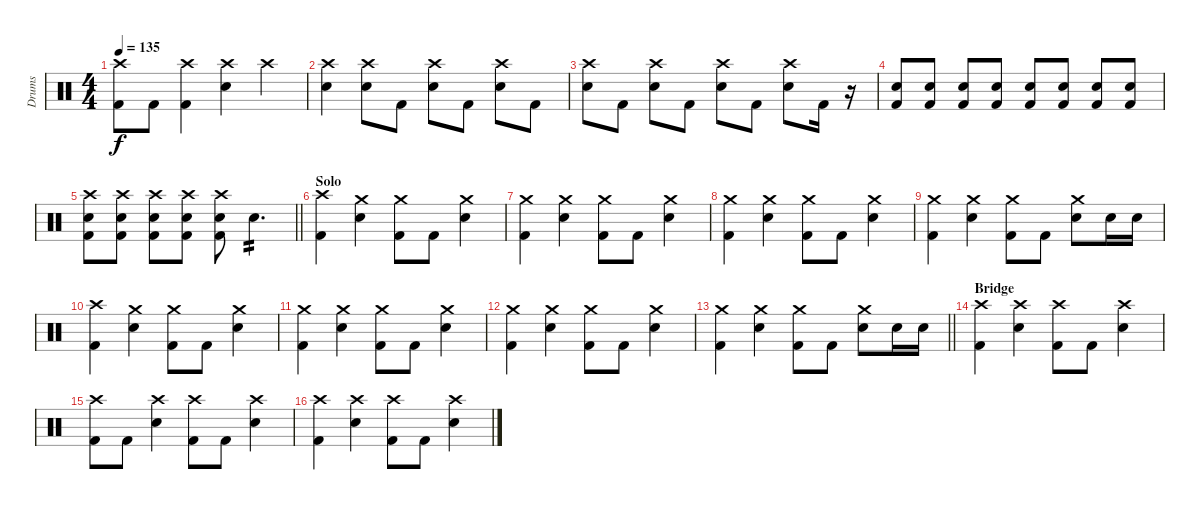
\track ("Drums" "Drums") {instrument percussion}
\staff {score}
\articulation defaults
\ts (4 4)
\tempo 135
\clef neutral
\ks c
("Crash high (hit)" "Kick (hit) 2").8{dy f} "Kick (hit) 2".8 ("Crash high (hit)" "Kick (hit) 2").4 ("Crash high (hit)" "Electric Snare (hit)").4 "Crash high (hit)".4 |
("Crash high (hit)" "Electric Snare (hit)").4 ("Crash high (hit)" "Electric Snare (hit)").8 "Kick (hit) 2".8 ("Crash high (hit)" "Electric Snare (hit)").8 "Kick (hit) 2".8 ("Crash high (hit)" "Electric Snare (hit)").8 "Kick (hit) 2".8 |
("Crash high (hit)" "Electric Snare (hit)").8 "Kick (hit) 2".8 ("Crash high (hit)" "Electric Snare (hit)").8 "Kick (hit) 2".8 ("Crash high (hit)" "Electric Snare (hit)").8 "Kick (hit) 2".8 ("Crash high (hit)" "Electric Snare (hit)").8 "Kick (hit) 2".16 r.16{volume 9} |
("Electric Snare (hit)" "Kick (hit) 2").8{volume 16} ("Electric Snare (hit)" "Kick (hit) 2").8 ("Electric Snare (hit)" "Kick (hit) 2").8 ("Electric Snare (hit)" "Kick (hit) 2").8 ("Electric Snare (hit)" "Kick (hit) 2").8 ("Electric Snare (hit)" "Kick (hit) 2").8 ("Electric Snare (hit)" "Kick (hit) 2").8 ("Electric Snare (hit)" "Kick (hit) 2").8 |
\barLineRight lightlight
("Crash high (hit)" "Electric Snare (hit)" "Kick (hit) 2").8 ("Crash high (hit)" "Electric Snare (hit)" "Kick (hit) 2").8 ("Crash high (hit)" "Electric Snare (hit)" "Kick (hit) 2").8 ("Crash high (hit)" "Electric Snare (hit)" "Kick (hit) 2").8 ("Crash high (hit)" "Electric Snare (hit)" "Kick (hit) 2").8 "Electric Snare (hit)".4{d tp 2} |
\section ("" "Solo")
("Crash high (hit)" "Kick (hit) 2").4 ("Crash medium (hit)" "Electric Snare (hit)").4 ("Crash medium (hit)" "Kick (hit) 2").8 "Kick (hit) 2".8 ("Crash medium (hit)" "Electric Snare (hit)").4 |
("Crash medium (hit)" "Kick (hit) 2").4 ("Crash medium (hit)" "Electric Snare (hit)").4 ("Crash medium (hit)" "Kick (hit) 2").8 "Kick (hit) 2".8 ("Crash medium (hit)" "Electric Snare (hit)").4 |
("Crash medium (hit)" "Kick (hit) 2").4 ("Crash medium (hit)" "Electric Snare (hit)").4 ("Crash medium (hit)" "Kick (hit) 2").8 "Kick (hit) 2".8 ("Crash medium (hit)" "Electric Snare (hit)").4 |
("Crash medium (hit)" "Kick (hit) 2").4 ("Crash medium (hit)" "Electric Snare (hit)").4 ("Crash medium (hit)" "Kick (hit) 2").8 "Kick (hit) 2".8 ("Crash medium (hit)" "Electric Snare (hit)").8 "Electric Snare (hit)".16 "Electric Snare (hit)".16 |
("Crash high (hit)" "Kick (hit) 2").4 ("Crash medium (hit)" "Electric Snare (hit)").4 ("Crash medium (hit)" "Kick (hit) 2").8 "Kick (hit) 2".8 ("Crash medium (hit)" "Electric Snare (hit)").4 |
("Crash medium (hit)" "Kick (hit) 2").4 ("Crash medium (hit)" "Electric Snare (hit)").4 ("Crash medium (hit)" "Kick (hit) 2").8 "Kick (hit) 2".8 ("Crash medium (hit)" "Electric Snare (hit)").4 |
("Crash medium (hit)" "Kick (hit) 2").4 ("Crash medium (hit)" "Electric Snare (hit)").4 ("Crash medium (hit)" "Kick (hit) 2").8 "Kick (hit) 2".8 ("Crash medium (hit)" "Electric Snare (hit)").4 |
\barLineRight lightlight
("Crash medium (hit)" "Kick (hit) 2").4 ("Crash medium (hit)" "Electric Snare (hit)").4 ("Crash medium (hit)" "Kick (hit) 2").8 "Kick (hit) 2".8 ("Crash medium (hit)" "Electric Snare (hit)").8 "Electric Snare (hit)".16 "Electric Snare (hit)".16 |
\section ("" "Bridge")
("Crash high (hit)" "Kick (hit) 2").4 ("Crash high (hit)" "Electric Snare (hit)").4 ("Crash high (hit)" "Kick (hit) 2").8 "Kick (hit) 2".8 ("Crash high (hit)" "Electric Snare (hit)").4 |
("Crash high (hit)" "Kick (hit) 2").8 "Kick (hit) 2".8 ("Crash high (hit)" "Electric Snare (hit)").4 ("Crash high (hit)" "Kick (hit) 2").8 "Kick (hit) 2".8 ("Crash high (hit)" "Electric Snare (hit)").4 |
("Crash high (hit)" "Kick (hit) 2").4 ("Crash high (hit)" "Electric Snare (hit)").4 ("Crash high (hit)" "Kick (hit) 2").8 "Kick (hit) 2".8 ("Crash high (hit)" "Electric Snare (hit)").4
